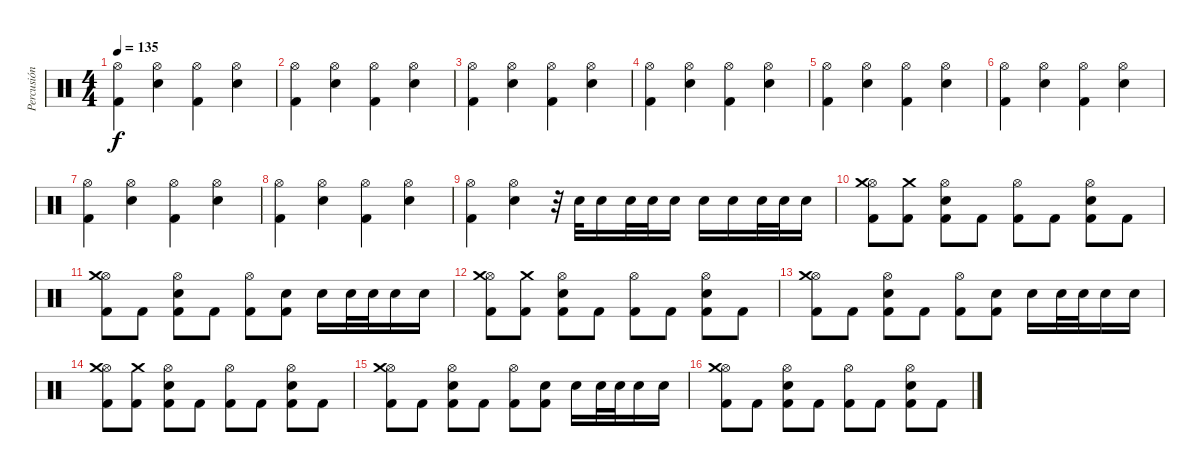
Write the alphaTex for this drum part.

\track ("Percusión" "Percusión") {instrument percussion}
\staff {score}
\articulation defaults
\ts (4 4)
\tempo 135
\clef neutral
\ks c
("Hi-Hat (open)" "Kick (hit) 2").4{dy f} ("Hi-Hat (open)" "Electric Snare (hit)").4 ("Hi-Hat (open)" "Kick (hit) 2").4 ("Hi-Hat (open)" "Electric Snare (hit)").4 |
("Hi-Hat (open)" "Kick (hit) 2").4 ("Hi-Hat (open)" "Electric Snare (hit)").4 ("Hi-Hat (open)" "Kick (hit) 2").4 ("Hi-Hat (open)" "Electric Snare (hit)").4 |
("Hi-Hat (open)" "Kick (hit) 2").4 ("Hi-Hat (open)" "Electric Snare (hit)").4 ("Hi-Hat (open)" "Kick (hit) 2").4 ("Hi-Hat (open)" "Electric Snare (hit)").4 |
("Hi-Hat (open)" "Kick (hit) 2").4 ("Hi-Hat (open)" "Electric Snare (hit)").4 ("Hi-Hat (open)" "Kick (hit) 2").4 ("Hi-Hat (open)" "Electric Snare (hit)").4 |
("Hi-Hat (open)" "Kick (hit) 2").4 ("Hi-Hat (open)" "Electric Snare (hit)").4 ("Hi-Hat (open)" "Kick (hit) 2").4 ("Hi-Hat (open)" "Electric Snare (hit)").4 |
("Hi-Hat (open)" "Kick (hit) 2").4 ("Hi-Hat (open)" "Electric Snare (hit)").4 ("Hi-Hat (open)" "Kick (hit) 2").4 ("Hi-Hat (open)" "Electric Snare (hit)").4 |
("Hi-Hat (open)" "Kick (hit) 2").4 ("Hi-Hat (open)" "Electric Snare (hit)").4 ("Hi-Hat (open)" "Kick (hit) 2").4 ("Hi-Hat (open)" "Electric Snare (hit)").4 |
("Hi-Hat (open)" "Kick (hit) 2").4 ("Hi-Hat (open)" "Electric Snare (hit)").4 ("Hi-Hat (open)" "Kick (hit) 2").4 ("Hi-Hat (open)" "Electric Snare (hit)").4 |
("Hi-Hat (open)" "Kick (hit) 2").4 ("Hi-Hat (open)" "Electric Snare (hit)").4 r.32 "Snare (hit) 2".32 "Snare (hit) 2".16 "Snare (hit) 2".32 "Snare (hit) 2".32 "Snare (hit) 2".16 "Snare (hit) 2".16 "Snare (hit) 2".16 "Snare (hit) 2".32 "Snare (hit) 2".32 "Snare (hit) 2".16 |
("Hi-Hat (open)" "Kick (hit) 2" "Crash medium (hit)").8 ("Kick (hit) 2" "Crash medium (hit)").8 ("Hi-Hat (open)" "Electric Snare (hit)" "Kick (hit) 2").8 "Kick (hit) 2".8 ("Hi-Hat (open)" "Kick (hit) 2").8 "Kick (hit) 2".8 ("Hi-Hat (open)" "Electric Snare (hit)" "Kick (hit) 2").8 "Kick (hit) 2".8 |
("Hi-Hat (open)" "Kick (hit) 2" "Crash medium (hit)").8 "Kick (hit) 2".8 ("Hi-Hat (open)" "Electric Snare (hit)" "Kick (hit) 2").8 "Kick (hit) 2".8 ("Hi-Hat (open)" "Kick (hit) 2").8 ("Kick (hit) 2" "Electric Snare (hit)").8 "Electric Snare (hit)".16 "Electric Snare (hit)".32 "Electric Snare (hit)".32 "Electric Snare (hit)".16 "Electric Snare (hit)".16 |
("Hi-Hat (open)" "Kick (hit) 2" "Crash medium (hit)").8 ("Kick (hit) 2" "Crash medium (hit)").8 ("Hi-Hat (open)" "Electric Snare (hit)" "Kick (hit) 2").8 "Kick (hit) 2".8 ("Hi-Hat (open)" "Kick (hit) 2").8 "Kick (hit) 2".8 ("Hi-Hat (open)" "Electric Snare (hit)" "Kick (hit) 2").8 "Kick (hit) 2".8 |
("Hi-Hat (open)" "Kick (hit) 2" "Crash medium (hit)").8 "Kick (hit) 2".8 ("Hi-Hat (open)" "Electric Snare (hit)" "Kick (hit) 2").8 "Kick (hit) 2".8 ("Hi-Hat (open)" "Kick (hit) 2").8 ("Kick (hit) 2" "Electric Snare (hit)").8 "Electric Snare (hit)".16 "Electric Snare (hit)".32 "Electric Snare (hit)".32 "Electric Snare (hit)".16 "Electric Snare (hit)".16 |
("Hi-Hat (open)" "Kick (hit) 2" "Crash medium (hit)").8 ("Kick (hit) 2" "Crash medium (hit)").8 ("Hi-Hat (open)" "Electric Snare (hit)" "Kick (hit) 2").8 "Kick (hit) 2".8 ("Hi-Hat (open)" "Kick (hit) 2").8 "Kick (hit) 2".8 ("Hi-Hat (open)" "Electric Snare (hit)" "Kick (hit) 2").8 "Kick (hit) 2".8 |
("Hi-Hat (open)" "Kick (hit) 2" "Crash medium (hit)").8 "Kick (hit) 2".8 ("Hi-Hat (open)" "Electric Snare (hit)" "Kick (hit) 2").8 "Kick (hit) 2".8 ("Hi-Hat (open)" "Kick (hit) 2").8 ("Kick (hit) 2" "Electric Snare (hit)").8 "Electric Snare (hit)".16 "Electric Snare (hit)".32 "Electric Snare (hit)".32 "Electric Snare (hit)".16 "Electric Snare (hit)".16 |
("Hi-Hat (open)" "Kick (hit) 2" "Crash medium (hit)").8 "Kick (hit) 2".8 ("Hi-Hat (open)" "Electric Snare (hit)" "Kick (hit) 2").8 "Kick (hit) 2".8 ("Hi-Hat (open)" "Kick (hit) 2").8 "Kick (hit) 2".8 ("Hi-Hat (open)" "Electric Snare (hit)" "Kick (hit) 2").8 "Kick (hit) 2".8
